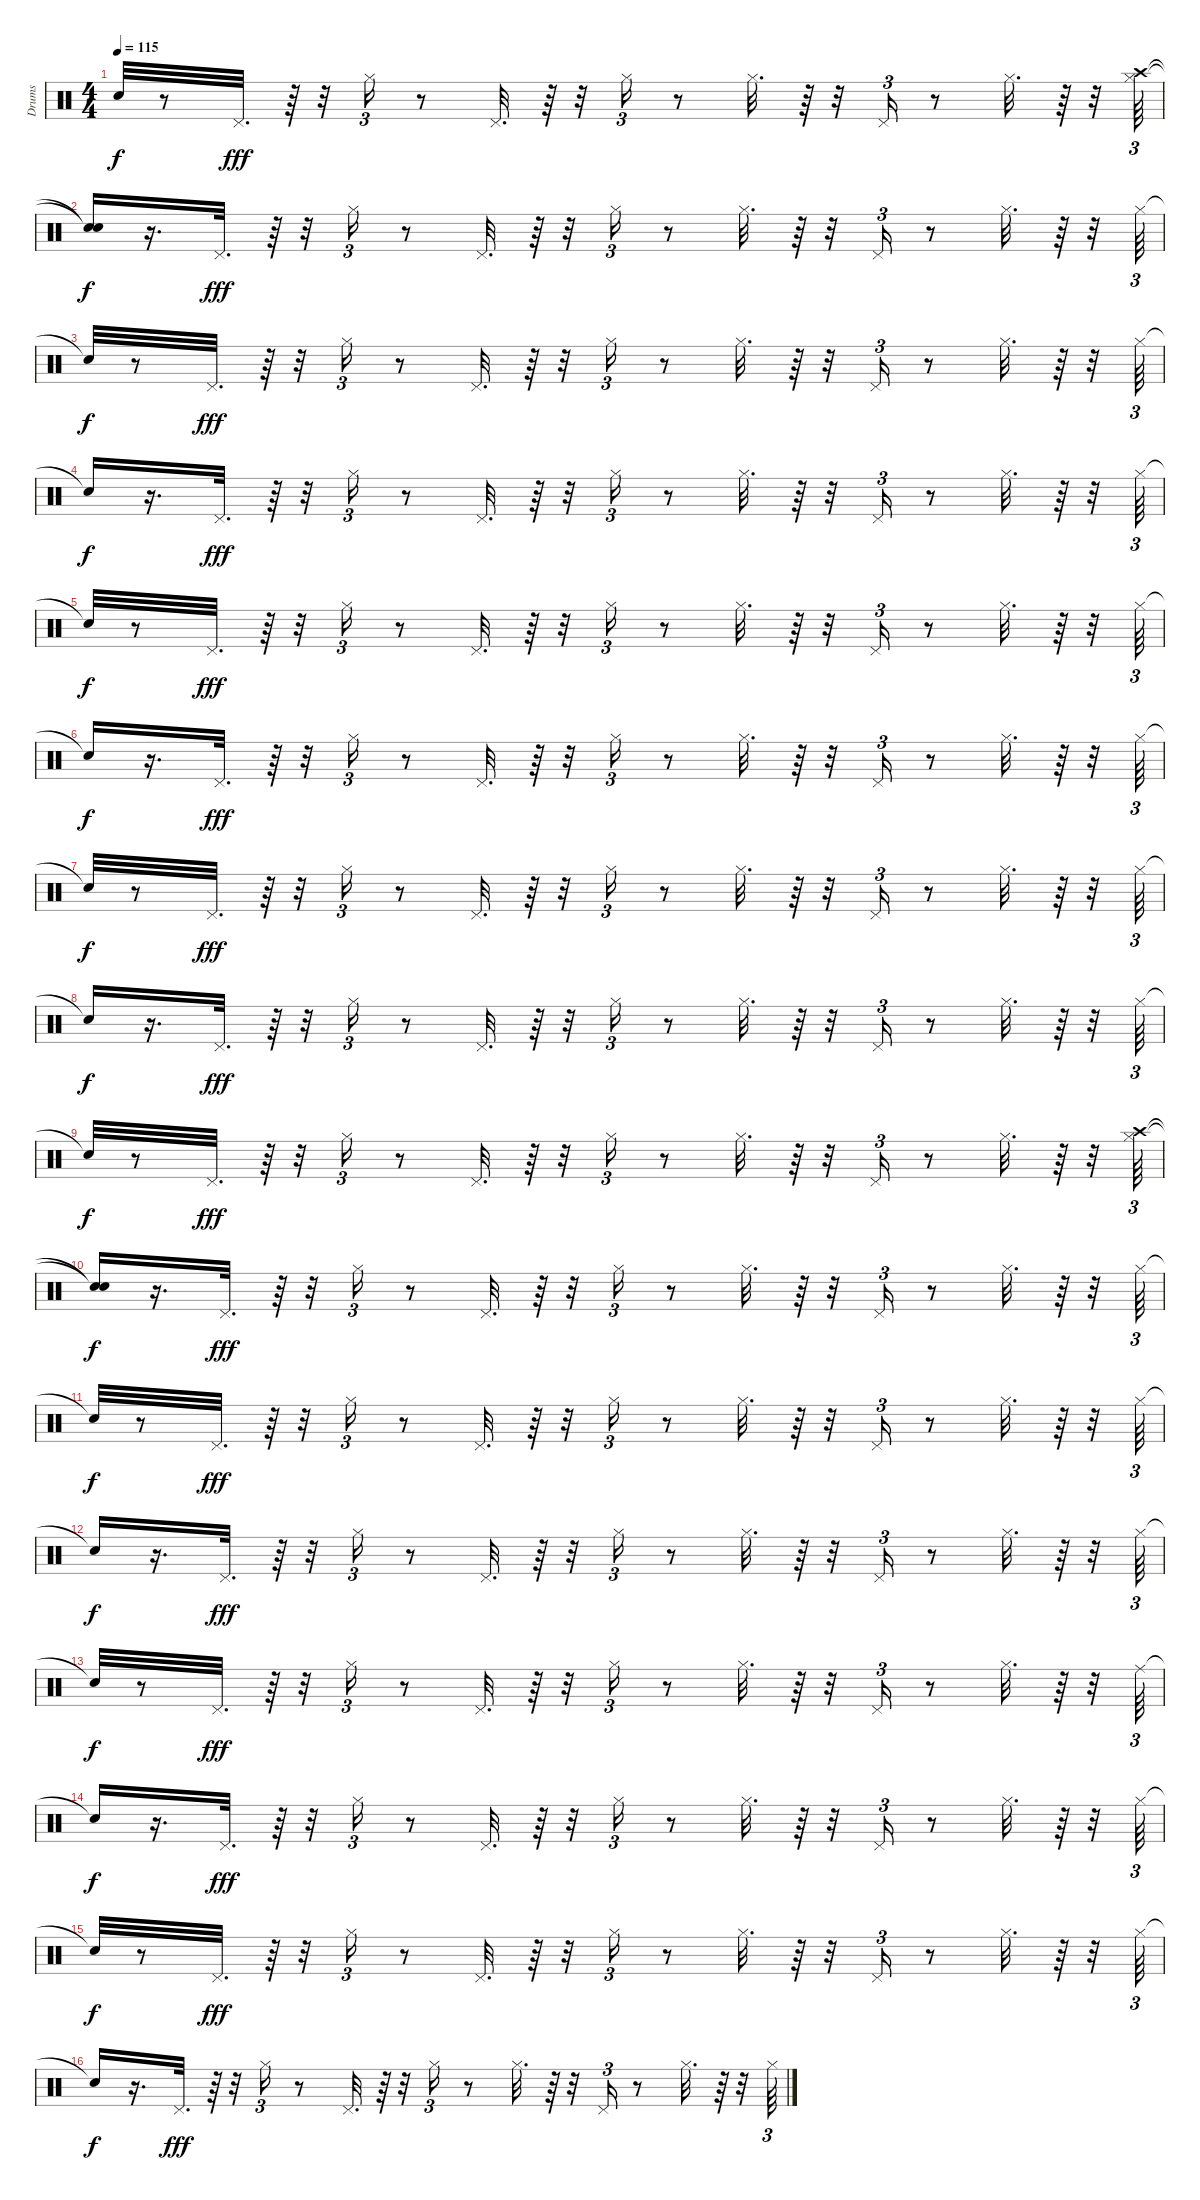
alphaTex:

\track ("Drums" "Drums") {instrument percussion}
\staff {score}
\articulation defaults
\ts (4 4)
\tempo 115
\clef neutral
\ks c "Snare (hit)"{t}.32{dy f}
r.8 "Pedal Hi-Hat (hit)".32{d dy fff} r.64 r.32 "Hi-Hat (closed)".16{tu (3 2)} r.8 "Pedal Hi-Hat (hit)".32{d} r.64 r.32 "Hi-Hat (closed)".16{tu (3 2)} r.8 "Hi-Hat (closed)".32{d} r.64 r.32 "Pedal Hi-Hat (hit)".16{tu (3 2)} r.8 "Hi-Hat (closed)".32{d} r.64 r.32 ("Crash high (hit)" "Hi-Hat (closed)").64{tu (3 2)} |
("Snare (hit)"{t} "Snare (hit)"{t}).16{dy f} r.16{d} "Pedal Hi-Hat (hit)".32{d dy fff} r.64 r.32 "Hi-Hat (closed)".16{tu (3 2)} r.8 "Pedal Hi-Hat (hit)".32{d} r.64 r.32 "Hi-Hat (closed)".16{tu (3 2)} r.8 "Hi-Hat (closed)".32{d} r.64 r.32 "Pedal Hi-Hat (hit)".16{tu (3 2)} r.8 "Hi-Hat (closed)".32{d} r.64 r.32 "Hi-Hat (closed)".64{tu (3 2)} |
"Snare (hit)"{t}.32{dy f} r.8 "Pedal Hi-Hat (hit)".32{d dy fff} r.64 r.32 "Hi-Hat (closed)".16{tu (3 2)} r.8 "Pedal Hi-Hat (hit)".32{d} r.64 r.32 "Hi-Hat (closed)".16{tu (3 2)} r.8 "Hi-Hat (closed)".32{d} r.64 r.32 "Pedal Hi-Hat (hit)".16{tu (3 2)} r.8 "Hi-Hat (closed)".32{d} r.64 r.32 "Hi-Hat (closed)".64{tu (3 2)} |
"Snare (hit)"{t}.16{dy f} r.16{d} "Pedal Hi-Hat (hit)".32{d dy fff} r.64 r.32 "Hi-Hat (closed)".16{tu (3 2)} r.8 "Pedal Hi-Hat (hit)".32{d} r.64 r.32 "Hi-Hat (closed)".16{tu (3 2)} r.8 "Hi-Hat (closed)".32{d} r.64 r.32 "Pedal Hi-Hat (hit)".16{tu (3 2)} r.8 "Hi-Hat (closed)".32{d} r.64 r.32 "Hi-Hat (closed)".64{tu (3 2)} |
"Snare (hit)"{t}.32{dy f} r.8 "Pedal Hi-Hat (hit)".32{d dy fff} r.64 r.32 "Hi-Hat (closed)".16{tu (3 2)} r.8 "Pedal Hi-Hat (hit)".32{d} r.64 r.32 "Hi-Hat (closed)".16{tu (3 2)} r.8 "Hi-Hat (closed)".32{d} r.64 r.32 "Pedal Hi-Hat (hit)".16{tu (3 2)} r.8 "Hi-Hat (closed)".32{d} r.64 r.32 "Hi-Hat (closed)".64{tu (3 2)} |
"Snare (hit)"{t}.16{dy f} r.16{d} "Pedal Hi-Hat (hit)".32{d dy fff} r.64 r.32 "Hi-Hat (closed)".16{tu (3 2)} r.8 "Pedal Hi-Hat (hit)".32{d} r.64 r.32 "Hi-Hat (closed)".16{tu (3 2)} r.8 "Hi-Hat (closed)".32{d} r.64 r.32 "Pedal Hi-Hat (hit)".16{tu (3 2)} r.8 "Hi-Hat (closed)".32{d} r.64 r.32 "Hi-Hat (closed)".64{tu (3 2)} |
"Snare (hit)"{t}.32{dy f} r.8 "Pedal Hi-Hat (hit)".32{d dy fff} r.64 r.32 "Hi-Hat (closed)".16{tu (3 2)} r.8 "Pedal Hi-Hat (hit)".32{d} r.64 r.32 "Hi-Hat (closed)".16{tu (3 2)} r.8 "Hi-Hat (closed)".32{d} r.64 r.32 "Pedal Hi-Hat (hit)".16{tu (3 2)} r.8 "Hi-Hat (closed)".32{d} r.64 r.32 "Hi-Hat (closed)".64{tu (3 2)} |
"Snare (hit)"{t}.16{dy f} r.16{d} "Pedal Hi-Hat (hit)".32{d dy fff} r.64 r.32 "Hi-Hat (closed)".16{tu (3 2)} r.8 "Pedal Hi-Hat (hit)".32{d} r.64 r.32 "Hi-Hat (closed)".16{tu (3 2)} r.8 "Hi-Hat (closed)".32{d} r.64 r.32 "Pedal Hi-Hat (hit)".16{tu (3 2)} r.8 "Hi-Hat (closed)".32{d} r.64 r.32 "Hi-Hat (closed)".64{tu (3 2)} |
"Snare (hit)"{t}.32{dy f} r.8 "Pedal Hi-Hat (hit)".32{d dy fff} r.64 r.32 "Hi-Hat (closed)".16{tu (3 2)} r.8 "Pedal Hi-Hat (hit)".32{d} r.64 r.32 "Hi-Hat (closed)".16{tu (3 2)} r.8 "Hi-Hat (closed)".32{d} r.64 r.32 "Pedal Hi-Hat (hit)".16{tu (3 2)} r.8 "Hi-Hat (closed)".32{d} r.64 r.32 ("Crash high (hit)" "Hi-Hat (closed)").64{tu (3 2)} |
("Snare (hit)"{t} "Snare (hit)"{t}).16{dy f} r.16{d} "Pedal Hi-Hat (hit)".32{d dy fff} r.64 r.32 "Hi-Hat (closed)".16{tu (3 2)} r.8 "Pedal Hi-Hat (hit)".32{d} r.64 r.32 "Hi-Hat (closed)".16{tu (3 2)} r.8 "Hi-Hat (closed)".32{d} r.64 r.32 "Pedal Hi-Hat (hit)".16{tu (3 2)} r.8 "Hi-Hat (closed)".32{d} r.64 r.32 "Hi-Hat (closed)".64{tu (3 2)} |
"Snare (hit)"{t}.32{dy f} r.8 "Pedal Hi-Hat (hit)".32{d dy fff} r.64 r.32 "Hi-Hat (closed)".16{tu (3 2)} r.8 "Pedal Hi-Hat (hit)".32{d} r.64 r.32 "Hi-Hat (closed)".16{tu (3 2)} r.8 "Hi-Hat (closed)".32{d} r.64 r.32 "Pedal Hi-Hat (hit)".16{tu (3 2)} r.8 "Hi-Hat (closed)".32{d} r.64 r.32 "Hi-Hat (closed)".64{tu (3 2)} |
"Snare (hit)"{t}.16{dy f} r.16{d} "Pedal Hi-Hat (hit)".32{d dy fff} r.64 r.32 "Hi-Hat (closed)".16{tu (3 2)} r.8 "Pedal Hi-Hat (hit)".32{d} r.64 r.32 "Hi-Hat (closed)".16{tu (3 2)} r.8 "Hi-Hat (closed)".32{d} r.64 r.32 "Pedal Hi-Hat (hit)".16{tu (3 2)} r.8 "Hi-Hat (closed)".32{d} r.64 r.32 "Hi-Hat (closed)".64{tu (3 2)} |
"Snare (hit)"{t}.32{dy f} r.8 "Pedal Hi-Hat (hit)".32{d dy fff} r.64 r.32 "Hi-Hat (closed)".16{tu (3 2)} r.8 "Pedal Hi-Hat (hit)".32{d} r.64 r.32 "Hi-Hat (closed)".16{tu (3 2)} r.8 "Hi-Hat (closed)".32{d} r.64 r.32 "Pedal Hi-Hat (hit)".16{tu (3 2)} r.8 "Hi-Hat (closed)".32{d} r.64 r.32 "Ride (middle)".64{tu (3 2)} |
"Snare (hit)"{t}.16{dy f} r.16{d} "Pedal Hi-Hat (hit)".32{d dy fff} r.64 r.32 "Hi-Hat (closed)".16{tu (3 2)} r.8 "Pedal Hi-Hat (hit)".32{d} r.64 r.32 "Hi-Hat (closed)".16{tu (3 2)} r.8 "Hi-Hat (closed)".32{d} r.64 r.32 "Pedal Hi-Hat (hit)".16{tu (3 2)} r.8 "Hi-Hat (closed)".32{d} r.64 r.32 "Hi-Hat (closed)".64{tu (3 2)} |
"Snare (hit)"{t}.32{dy f} r.8 "Pedal Hi-Hat (hit)".32{d dy fff} r.64 r.32 "Hi-Hat (closed)".16{tu (3 2)} r.8 "Pedal Hi-Hat (hit)".32{d} r.64 r.32 "Hi-Hat (closed)".16{tu (3 2)} r.8 "Hi-Hat (closed)".32{d} r.64 r.32 "Pedal Hi-Hat (hit)".16{tu (3 2)} r.8 "Hi-Hat (closed)".32{d} r.64 r.32 "Hi-Hat (closed)".64{tu (3 2)} |
"Snare (hit)"{t}.16{dy f} r.16{d} "Pedal Hi-Hat (hit)".32{d dy fff} r.64 r.32 "Hi-Hat (closed)".16{tu (3 2)} r.8 "Pedal Hi-Hat (hit)".32{d} r.64 r.32 "Hi-Hat (closed)".16{tu (3 2)} r.8 "Hi-Hat (closed)".32{d} r.64 r.32 "Pedal Hi-Hat (hit)".16{tu (3 2)} r.8 "Hi-Hat (closed)".32{d} r.64 r.32 "Hi-Hat (closed)".64{tu (3 2)}
